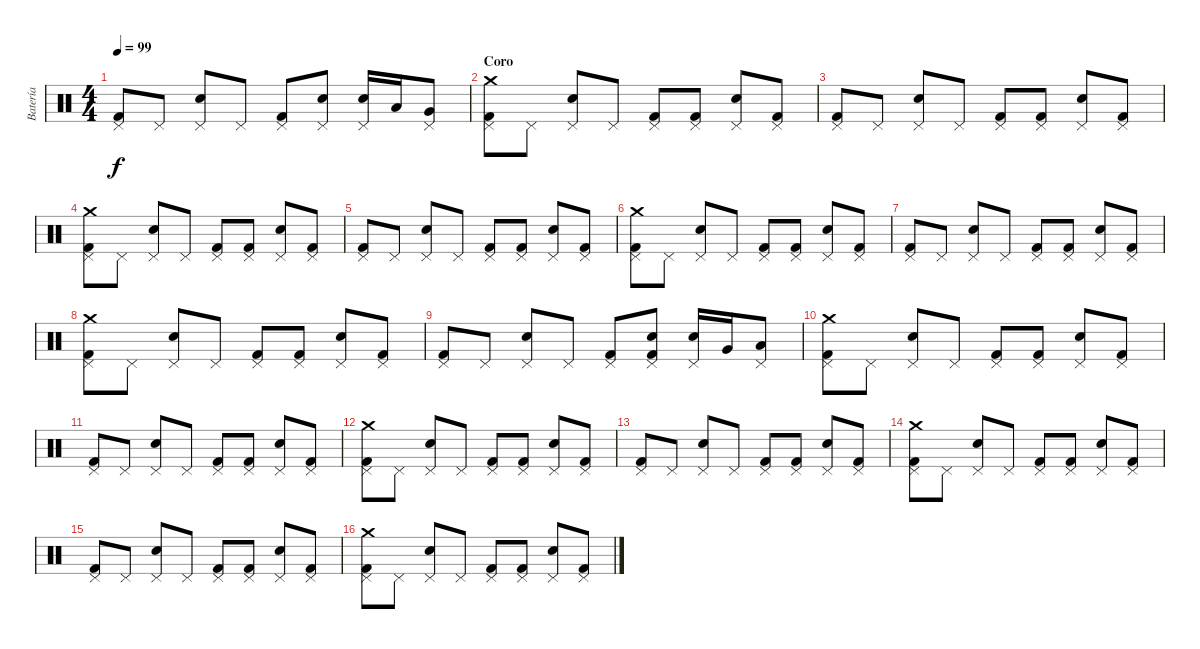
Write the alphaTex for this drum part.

\track ("Batería" "Batería") {instrument percussion}
\staff {score}
\articulation defaults
\ts (4 4)
\tempo 99
\clef neutral
\ks c
("Pedal Hi-Hat (hit)" "Kick (hit) 2").8{dy f} "Pedal Hi-Hat (hit)".8 ("Pedal Hi-Hat (hit)" "Snare (hit) 2").8 "Pedal Hi-Hat (hit)".8 ("Pedal Hi-Hat (hit)" "Kick (hit) 2").8 ("Pedal Hi-Hat (hit)" "Snare (hit) 2").8 ("Pedal Hi-Hat (hit)" "Snare (hit) 2").16 "Low Tom (hit)".16 ("Pedal Hi-Hat (hit)" "Very Low Tom (hit)").8 |
\section ("" "Coro")
("Crash medium (hit)" "Pedal Hi-Hat (hit)" "Kick (hit) 2").8 "Pedal Hi-Hat (hit)".8 ("Pedal Hi-Hat (hit)" "Snare (hit) 2").8 "Pedal Hi-Hat (hit)".8 ("Pedal Hi-Hat (hit)" "Kick (hit) 2").8 ("Pedal Hi-Hat (hit)" "Kick (hit) 2").8 ("Pedal Hi-Hat (hit)" "Snare (hit) 2").8 ("Pedal Hi-Hat (hit)" "Kick (hit) 2").8 |
("Pedal Hi-Hat (hit)" "Kick (hit) 2").8 "Pedal Hi-Hat (hit)".8 ("Pedal Hi-Hat (hit)" "Snare (hit) 2").8 "Pedal Hi-Hat (hit)".8 ("Pedal Hi-Hat (hit)" "Kick (hit) 2").8 ("Pedal Hi-Hat (hit)" "Kick (hit) 2").8 ("Pedal Hi-Hat (hit)" "Snare (hit) 2").8 ("Pedal Hi-Hat (hit)" "Kick (hit) 2").8 |
("Crash medium (hit)" "Pedal Hi-Hat (hit)" "Kick (hit) 2").8 "Pedal Hi-Hat (hit)".8 ("Pedal Hi-Hat (hit)" "Snare (hit) 2").8 "Pedal Hi-Hat (hit)".8 ("Pedal Hi-Hat (hit)" "Kick (hit) 2").8 ("Pedal Hi-Hat (hit)" "Kick (hit) 2").8 ("Pedal Hi-Hat (hit)" "Snare (hit) 2").8 ("Pedal Hi-Hat (hit)" "Kick (hit) 2").8 |
("Pedal Hi-Hat (hit)" "Kick (hit) 2").8 "Pedal Hi-Hat (hit)".8 ("Pedal Hi-Hat (hit)" "Snare (hit) 2").8 "Pedal Hi-Hat (hit)".8 ("Pedal Hi-Hat (hit)" "Kick (hit) 2").8 ("Pedal Hi-Hat (hit)" "Kick (hit) 2").8 ("Pedal Hi-Hat (hit)" "Snare (hit) 2").8 ("Pedal Hi-Hat (hit)" "Kick (hit) 2").8 |
("Kick (hit) 2" "Crash medium (hit)" "Pedal Hi-Hat (hit)").8 "Pedal Hi-Hat (hit)".8 ("Snare (hit) 2" "Pedal Hi-Hat (hit)").8 "Pedal Hi-Hat (hit)".8 ("Kick (hit) 2" "Pedal Hi-Hat (hit)").8 ("Kick (hit) 2" "Pedal Hi-Hat (hit)").8 ("Snare (hit) 2" "Pedal Hi-Hat (hit)").8 ("Kick (hit) 2" "Pedal Hi-Hat (hit)").8 |
("Kick (hit) 2" "Pedal Hi-Hat (hit)").8 "Pedal Hi-Hat (hit)".8 ("Snare (hit) 2" "Pedal Hi-Hat (hit)").8 "Pedal Hi-Hat (hit)".8 ("Kick (hit) 2" "Pedal Hi-Hat (hit)").8 ("Kick (hit) 2" "Pedal Hi-Hat (hit)").8 ("Snare (hit) 2" "Pedal Hi-Hat (hit)").8 ("Kick (hit) 2" "Pedal Hi-Hat (hit)").8 |
("Crash medium (hit)" "Kick (hit) 2" "Pedal Hi-Hat (hit)").8 "Pedal Hi-Hat (hit)".8 ("Snare (hit) 2" "Pedal Hi-Hat (hit)").8 "Pedal Hi-Hat (hit)".8 ("Kick (hit) 2" "Pedal Hi-Hat (hit)").8 ("Kick (hit) 2" "Pedal Hi-Hat (hit)").8 ("Snare (hit) 2" "Pedal Hi-Hat (hit)").8 ("Kick (hit) 2" "Pedal Hi-Hat (hit)").8 |
("Pedal Hi-Hat (hit)" "Kick (hit) 2").8 "Pedal Hi-Hat (hit)".8 ("Pedal Hi-Hat (hit)" "Snare (hit) 2").8 "Pedal Hi-Hat (hit)".8 ("Pedal Hi-Hat (hit)" "Kick (hit) 2").8 ("Pedal Hi-Hat (hit)" "Snare (hit) 2" "Kick (hit) 2").8 ("Pedal Hi-Hat (hit)" "Snare (hit) 2").16 "Very Low Tom (hit)".16 ("Low Floor Tom (hit)" "Pedal Hi-Hat (hit)").8 |
("Kick (hit) 2" "Crash medium (hit)" "Pedal Hi-Hat (hit)").8 "Pedal Hi-Hat (hit)".8 ("Snare (hit) 2" "Pedal Hi-Hat (hit)").8 "Pedal Hi-Hat (hit)".8 ("Kick (hit) 2" "Pedal Hi-Hat (hit)").8 ("Kick (hit) 2" "Pedal Hi-Hat (hit)").8 ("Snare (hit) 2" "Pedal Hi-Hat (hit)").8 ("Kick (hit) 2" "Pedal Hi-Hat (hit)").8 |
("Kick (hit) 2" "Pedal Hi-Hat (hit)").8 "Pedal Hi-Hat (hit)".8 ("Snare (hit) 2" "Pedal Hi-Hat (hit)").8 "Pedal Hi-Hat (hit)".8 ("Kick (hit) 2" "Pedal Hi-Hat (hit)").8 ("Kick (hit) 2" "Pedal Hi-Hat (hit)").8 ("Snare (hit) 2" "Pedal Hi-Hat (hit)").8 ("Kick (hit) 2" "Pedal Hi-Hat (hit)").8 |
("Crash medium (hit)" "Pedal Hi-Hat (hit)" "Kick (hit) 2").8 "Pedal Hi-Hat (hit)".8 ("Pedal Hi-Hat (hit)" "Snare (hit) 2").8 "Pedal Hi-Hat (hit)".8 ("Pedal Hi-Hat (hit)" "Kick (hit) 2").8 ("Pedal Hi-Hat (hit)" "Kick (hit) 2").8 ("Pedal Hi-Hat (hit)" "Snare (hit) 2").8 ("Pedal Hi-Hat (hit)" "Kick (hit) 2").8 |
("Pedal Hi-Hat (hit)" "Kick (hit) 2").8 "Pedal Hi-Hat (hit)".8 ("Pedal Hi-Hat (hit)" "Snare (hit) 2").8 "Pedal Hi-Hat (hit)".8 ("Pedal Hi-Hat (hit)" "Kick (hit) 2").8 ("Pedal Hi-Hat (hit)" "Kick (hit) 2").8 ("Pedal Hi-Hat (hit)" "Snare (hit) 2").8 ("Pedal Hi-Hat (hit)" "Kick (hit) 2").8 |
("Kick (hit) 2" "Crash medium (hit)" "Pedal Hi-Hat (hit)").8 "Pedal Hi-Hat (hit)".8 ("Snare (hit) 2" "Pedal Hi-Hat (hit)").8 "Pedal Hi-Hat (hit)".8 ("Kick (hit) 2" "Pedal Hi-Hat (hit)").8 ("Kick (hit) 2" "Pedal Hi-Hat (hit)").8 ("Snare (hit) 2" "Pedal Hi-Hat (hit)").8 ("Kick (hit) 2" "Pedal Hi-Hat (hit)").8 |
("Pedal Hi-Hat (hit)" "Kick (hit) 2").8 "Pedal Hi-Hat (hit)".8 ("Pedal Hi-Hat (hit)" "Snare (hit) 2").8 "Pedal Hi-Hat (hit)".8 ("Pedal Hi-Hat (hit)" "Kick (hit) 2").8 ("Pedal Hi-Hat (hit)" "Kick (hit) 2").8 ("Pedal Hi-Hat (hit)" "Snare (hit) 2").8 ("Pedal Hi-Hat (hit)" "Kick (hit) 2").8 |
("Crash medium (hit)" "Kick (hit) 2" "Pedal Hi-Hat (hit)").8 "Pedal Hi-Hat (hit)".8 ("Snare (hit) 2" "Pedal Hi-Hat (hit)").8 "Pedal Hi-Hat (hit)".8 ("Kick (hit) 2" "Pedal Hi-Hat (hit)").8 ("Kick (hit) 2" "Pedal Hi-Hat (hit)").8 ("Snare (hit) 2" "Pedal Hi-Hat (hit)").8 ("Kick (hit) 2" "Pedal Hi-Hat (hit)").8
